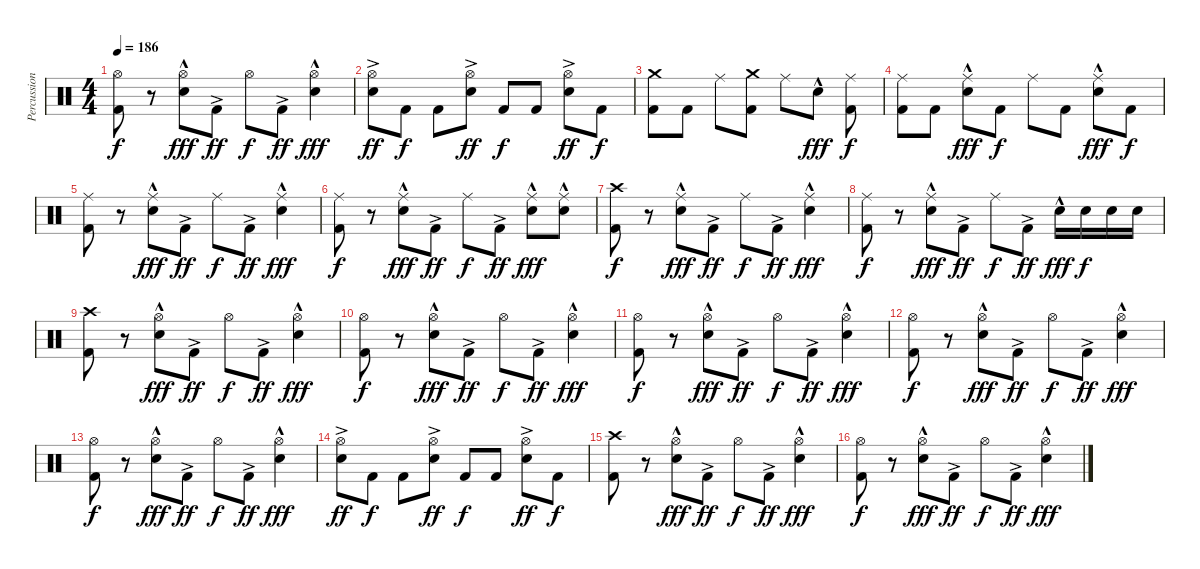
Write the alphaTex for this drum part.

\track ("Percussion" "Percussion") {instrument percussion}
\staff {score}
\articulation defaults
\ts (4 4)
\tempo 186
\clef neutral
\ks c
("Kick (hit) 2" "Hi-Hat (open)").8{dy f} r.8 ("Electric Snare (hit)"{hac} "Hi-Hat (open)").8{dy fff} "Kick (hit) 2"{ac}.8{dy ff} "Hi-Hat (open)".8{dy f} "Kick (hit) 2"{ac}.8{dy ff} ("Electric Snare (hit)"{hac} "Hi-Hat (open)").4{dy fff} |
("Hi-Hat (open)" "Electric Snare (hit)"{ac}).8{dy ff} "Kick (hit) 2".8{dy f} "Kick (hit) 2".8 ("Electric Snare (hit)"{ac} "Hi-Hat (open)").8{dy ff} "Kick (hit) 2".8{dy f} "Kick (hit) 2".8 ("Electric Snare (hit)"{ac} "Hi-Hat (open)").8{dy ff} "Kick (hit) 2".8{dy f} |
("Kick (hit) 2" "Crash medium (hit)").8 "Kick (hit) 2".8 "Ride (middle)".8 ("Crash medium (hit)" "Kick (hit) 2").8 "Ride (middle)".8 "Electric Snare (hit)"{hac}.8{dy fff} ("Kick (hit) 2" "Ride (middle)").8{dy f} |
("Kick (hit) 2" "Ride (middle)").8 "Kick (hit) 2".8 ("Electric Snare (hit)"{hac} "Ride (middle)").8{dy fff} "Kick (hit) 2".8{dy f} "Ride (middle)".8 "Kick (hit) 2".8 ("Electric Snare (hit)"{hac} "Ride (middle)").8{dy fff} "Kick (hit) 2".8{dy f} |
("Kick (hit) 2" "Ride (middle)").8 r.8 ("Electric Snare (hit)"{hac} "Ride (middle)").8{dy fff} "Kick (hit) 2"{ac}.8{dy ff} "Ride (middle)".8{dy f} "Kick (hit) 2"{ac}.8{dy ff} ("Electric Snare (hit)"{hac} "Ride (middle)").4{dy fff} |
("Kick (hit) 2" "Ride (middle)").8{dy f} r.8 ("Electric Snare (hit)"{hac} "Ride (middle)").8{dy fff} "Kick (hit) 2"{ac}.8{dy ff} "Ride (middle)".8{dy f} "Kick (hit) 2"{ac}.8{dy ff} ("Electric Snare (hit)"{hac} "Ride (middle)").8{dy fff} ("Electric Snare (hit)"{hac} "Ride (middle)").8 |
("Kick (hit) 2" "Crash high (hit)").8{dy f} r.8 ("Electric Snare (hit)"{hac} "Ride (middle)").8{dy fff} "Kick (hit) 2"{ac}.8{dy ff} "Ride (middle)".8{dy f} "Kick (hit) 2"{ac}.8{dy ff} ("Electric Snare (hit)"{hac} "Ride (middle)").4{dy fff} |
("Kick (hit) 2" "Ride (middle)").8{dy f} r.8 ("Electric Snare (hit)"{hac} "Ride (middle)").8{dy fff} "Kick (hit) 2"{ac}.8{dy ff} "Ride (middle)".8{dy f} "Kick (hit) 2"{ac}.8{dy ff} "Electric Snare (hit)"{hac}.16{dy fff} "Electric Snare (hit)".16{dy f} "Electric Snare (hit)".16 "Electric Snare (hit)".16 |
("Kick (hit) 2" "Crash high (hit)").8 r.8 ("Electric Snare (hit)"{hac} "Hi-Hat (open)").8{dy fff} "Kick (hit) 2"{ac}.8{dy ff} "Hi-Hat (open)".8{dy f} "Kick (hit) 2"{ac}.8{dy ff} ("Electric Snare (hit)"{hac} "Hi-Hat (open)").4{dy fff} |
("Kick (hit) 2" "Hi-Hat (open)").8{dy f} r.8 ("Electric Snare (hit)"{hac} "Hi-Hat (open)").8{dy fff} "Kick (hit) 2"{ac}.8{dy ff} "Hi-Hat (open)".8{dy f} "Kick (hit) 2"{ac}.8{dy ff} ("Electric Snare (hit)"{hac} "Hi-Hat (open)").4{dy fff} |
("Kick (hit) 2" "Hi-Hat (open)").8{dy f} r.8 ("Electric Snare (hit)"{hac} "Hi-Hat (open)").8{dy fff} "Kick (hit) 2"{ac}.8{dy ff} "Hi-Hat (open)".8{dy f} "Kick (hit) 2"{ac}.8{dy ff} ("Electric Snare (hit)"{hac} "Hi-Hat (open)").4{dy fff} |
("Kick (hit) 2" "Hi-Hat (open)").8{dy f} r.8 ("Electric Snare (hit)"{hac} "Hi-Hat (open)").8{dy fff} "Kick (hit) 2"{ac}.8{dy ff} "Hi-Hat (open)".8{dy f} "Kick (hit) 2"{ac}.8{dy ff} ("Electric Snare (hit)"{hac} "Hi-Hat (open)").4{dy fff} |
("Kick (hit) 2" "Hi-Hat (open)").8{dy f} r.8 ("Electric Snare (hit)"{hac} "Hi-Hat (open)").8{dy fff} "Kick (hit) 2"{ac}.8{dy ff} "Hi-Hat (open)".8{dy f} "Kick (hit) 2"{ac}.8{dy ff} ("Electric Snare (hit)"{hac} "Hi-Hat (open)").4{dy fff} |
("Hi-Hat (open)" "Electric Snare (hit)"{ac}).8{dy ff} "Kick (hit) 2".8{dy f} "Kick (hit) 2".8 ("Electric Snare (hit)"{ac} "Hi-Hat (open)").8{dy ff} "Kick (hit) 2".8{dy f} "Kick (hit) 2".8 ("Electric Snare (hit)"{ac} "Hi-Hat (open)").8{dy ff} "Kick (hit) 2".8{dy f} |
("Kick (hit) 2" "Crash high (hit)").8 r.8 ("Electric Snare (hit)"{hac} "Hi-Hat (open)").8{dy fff} "Kick (hit) 2"{ac}.8{dy ff} "Hi-Hat (open)".8{dy f} "Kick (hit) 2"{ac}.8{dy ff} ("Electric Snare (hit)"{hac} "Hi-Hat (open)").4{dy fff} |
("Kick (hit) 2" "Hi-Hat (open)").8{dy f} r.8 ("Electric Snare (hit)"{hac} "Hi-Hat (open)").8{dy fff} "Kick (hit) 2"{ac}.8{dy ff} "Hi-Hat (open)".8{dy f} "Kick (hit) 2"{ac}.8{dy ff} ("Electric Snare (hit)"{hac} "Hi-Hat (open)").4{dy fff}
